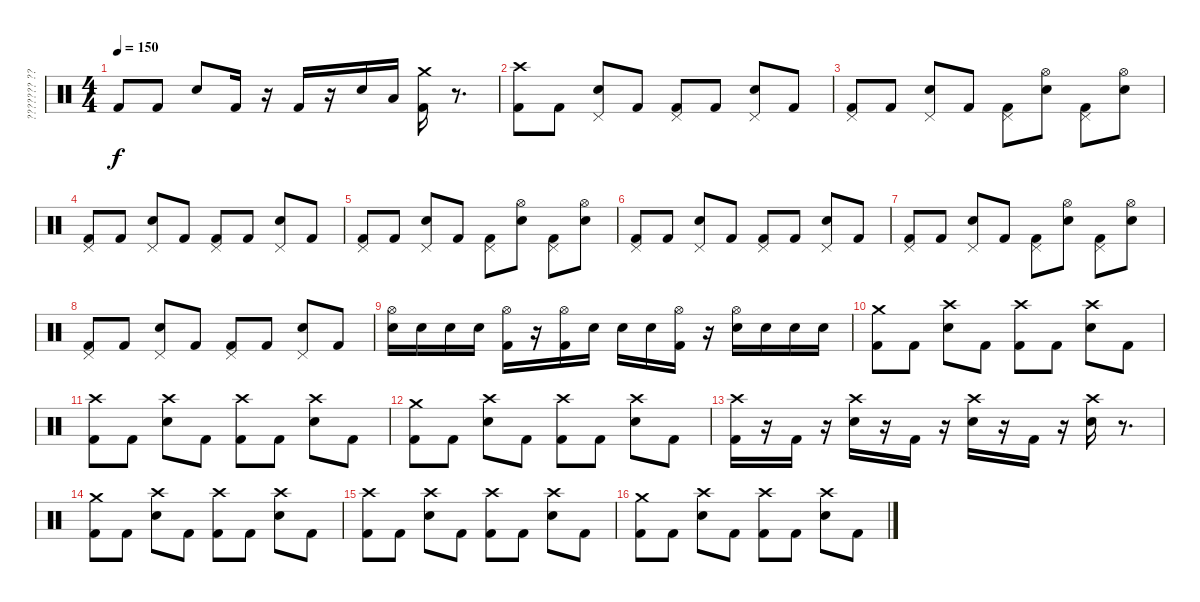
\track ("??????? ?????????" "??????? ??") {instrument percussion}
\staff {score}
\articulation defaults
\ts (4 4)
\tempo 150
\clef neutral
\ks c "Kick (hit) 2".8{dy f} "Kick (hit) 2".8 "Electric Snare (hit)".8 "Kick (hit) 2".16
r.16 "Kick (hit) 2".16 r.16 "Electric Snare (hit)".16 "Low Tom (hit)".16 ("Crash medium (hit)" "Kick (hit) 2").16 r.8{d} |
("Crash high (hit)" "Kick (hit) 2").8 "Kick (hit) 2".8 ("Pedal Hi-Hat (hit)" "Electric Snare (hit)").8 "Kick (hit) 2".8 ("Pedal Hi-Hat (hit)" "Kick (hit) 2").8 "Kick (hit) 2".8 ("Pedal Hi-Hat (hit)" "Electric Snare (hit)").8 "Kick (hit) 2".8 |
("Pedal Hi-Hat (hit)" "Kick (hit) 2").8 "Kick (hit) 2".8 ("Pedal Hi-Hat (hit)" "Electric Snare (hit)").8 "Kick (hit) 2".8 ("Pedal Hi-Hat (hit)" "Kick (hit) 2").8 ("Hi-Hat (open)" "Electric Snare (hit)").8 ("Pedal Hi-Hat (hit)" "Kick (hit) 2").8 ("Hi-Hat (open)" "Electric Snare (hit)").8 |
("Pedal Hi-Hat (hit)" "Kick (hit) 2").8 "Kick (hit) 2".8 ("Pedal Hi-Hat (hit)" "Electric Snare (hit)").8 "Kick (hit) 2".8 ("Pedal Hi-Hat (hit)" "Kick (hit) 2").8 "Kick (hit) 2".8 ("Pedal Hi-Hat (hit)" "Electric Snare (hit)").8 "Kick (hit) 2".8 |
("Pedal Hi-Hat (hit)" "Kick (hit) 2").8 "Kick (hit) 2".8 ("Pedal Hi-Hat (hit)" "Electric Snare (hit)").8 "Kick (hit) 2".8 ("Pedal Hi-Hat (hit)" "Kick (hit) 2").8 ("Hi-Hat (open)" "Electric Snare (hit)").8 ("Pedal Hi-Hat (hit)" "Kick (hit) 2").8 ("Hi-Hat (open)" "Electric Snare (hit)").8 |
("Pedal Hi-Hat (hit)" "Kick (hit) 2").8 "Kick (hit) 2".8 ("Pedal Hi-Hat (hit)" "Electric Snare (hit)").8 "Kick (hit) 2".8 ("Pedal Hi-Hat (hit)" "Kick (hit) 2").8 "Kick (hit) 2".8 ("Pedal Hi-Hat (hit)" "Electric Snare (hit)").8 "Kick (hit) 2".8 |
("Pedal Hi-Hat (hit)" "Kick (hit) 2").8 "Kick (hit) 2".8 ("Pedal Hi-Hat (hit)" "Electric Snare (hit)").8 "Kick (hit) 2".8 ("Pedal Hi-Hat (hit)" "Kick (hit) 2").8 ("Hi-Hat (open)" "Electric Snare (hit)").8 ("Pedal Hi-Hat (hit)" "Kick (hit) 2").8 ("Hi-Hat (open)" "Electric Snare (hit)").8 |
("Pedal Hi-Hat (hit)" "Kick (hit) 2").8 "Kick (hit) 2".8 ("Pedal Hi-Hat (hit)" "Electric Snare (hit)").8 "Kick (hit) 2".8 ("Pedal Hi-Hat (hit)" "Kick (hit) 2").8 "Kick (hit) 2".8 ("Pedal Hi-Hat (hit)" "Electric Snare (hit)").8 "Kick (hit) 2".8 |
("Hi-Hat (open)" "Electric Snare (hit)").16 "Electric Snare (hit)".16 "Electric Snare (hit)".16 "Electric Snare (hit)".16 ("Hi-Hat (open)" "Kick (hit) 2").16 r.16 ("Hi-Hat (open)" "Kick (hit) 2").16 "Electric Snare (hit)".16 "Electric Snare (hit)".16 "Electric Snare (hit)".16 ("Hi-Hat (open)" "Kick (hit) 2").16 r.16 ("Hi-Hat (open)" "Electric Snare (hit)").16 "Electric Snare (hit)".16 "Electric Snare (hit)".16 "Electric Snare (hit)".16 |
("Crash medium (hit)" "Kick (hit) 2").8 "Kick (hit) 2".8 ("Crash high (hit)" "Electric Snare (hit)").8 "Kick (hit) 2".8 ("Crash high (hit)" "Kick (hit) 2").8 "Kick (hit) 2".8 ("Crash high (hit)" "Electric Snare (hit)").8 "Kick (hit) 2".8 |
("Crash high (hit)" "Kick (hit) 2").8 "Kick (hit) 2".8 ("Crash high (hit)" "Electric Snare (hit)").8 "Kick (hit) 2".8 ("Crash high (hit)" "Kick (hit) 2").8 "Kick (hit) 2".8 ("Crash high (hit)" "Electric Snare (hit)").8 "Kick (hit) 2".8 |
("Crash medium (hit)" "Kick (hit) 2").8 "Kick (hit) 2".8 ("Crash high (hit)" "Electric Snare (hit)").8 "Kick (hit) 2".8 ("Crash high (hit)" "Kick (hit) 2").8 "Kick (hit) 2".8 ("Crash high (hit)" "Electric Snare (hit)").8 "Kick (hit) 2".8 |
("Crash high (hit)" "Kick (hit) 2").16 r.16 "Kick (hit) 2".16 r.16 ("Crash high (hit)" "Electric Snare (hit)").16 r.16 "Kick (hit) 2".16 r.16 ("Crash high (hit)" "Electric Snare (hit)").16 r.16 "Kick (hit) 2".16 r.16 ("Crash high (hit)" "Electric Snare (hit)").16 r.8{d} |
("Crash medium (hit)" "Kick (hit) 2").8 "Kick (hit) 2".8 ("Crash high (hit)" "Electric Snare (hit)").8 "Kick (hit) 2".8 ("Crash high (hit)" "Kick (hit) 2").8 "Kick (hit) 2".8 ("Crash high (hit)" "Electric Snare (hit)").8 "Kick (hit) 2".8 |
("Crash high (hit)" "Kick (hit) 2").8 "Kick (hit) 2".8 ("Crash high (hit)" "Electric Snare (hit)").8 "Kick (hit) 2".8 ("Crash high (hit)" "Kick (hit) 2").8 "Kick (hit) 2".8 ("Crash high (hit)" "Electric Snare (hit)").8 "Kick (hit) 2".8 |
("Crash medium (hit)" "Kick (hit) 2").8 "Kick (hit) 2".8 ("Crash high (hit)" "Electric Snare (hit)").8 "Kick (hit) 2".8 ("Crash high (hit)" "Kick (hit) 2").8 "Kick (hit) 2".8 ("Crash high (hit)" "Electric Snare (hit)").8 "Kick (hit) 2".8
